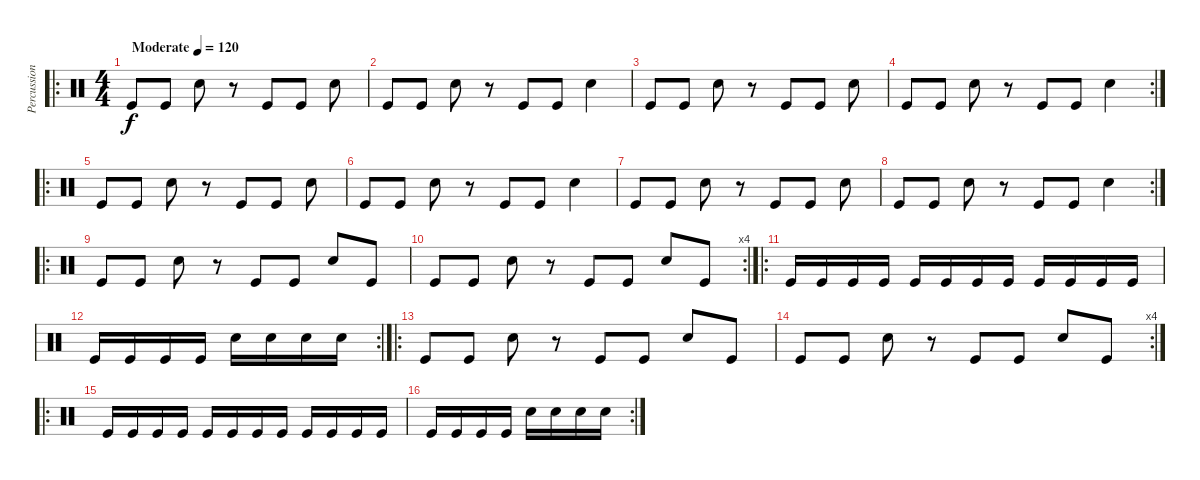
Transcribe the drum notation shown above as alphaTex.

\track ("Percussion" "Percussion") {instrument percussion}
\staff {score}
\articulation defaults
\ro
\ts (4 4)
\tempo (120 "Moderate")
\clef neutral
\ks c "Kick (hit)".8{dy f} "Kick (hit)".8 "Snare (hit) 2".8
r.8 "Kick (hit)".8 "Kick (hit)".8 "Snare (hit) 2".8 |
"Kick (hit)".8 "Kick (hit)".8 "Snare (hit) 2".8 r.8 "Kick (hit)".8 "Kick (hit)".8 "Snare (hit) 2".4 |
"Kick (hit)".8 "Kick (hit)".8 "Snare (hit) 2".8 r.8 "Kick (hit)".8 "Kick (hit)".8 "Snare (hit) 2".8 |
\rc 2 "Kick (hit)".8 "Kick (hit)".8 "Snare (hit) 2".8
r.8 "Kick (hit)".8 "Kick (hit)".8 "Snare (hit) 2".4 |
\ro "Kick (hit)".8 "Kick (hit)".8 "Snare (hit) 2".8
r.8 "Kick (hit)".8 "Kick (hit)".8 "Snare (hit) 2".8 |
"Kick (hit)".8 "Kick (hit)".8 "Snare (hit) 2".8 r.8 "Kick (hit)".8 "Kick (hit)".8 "Snare (hit) 2".4 |
"Kick (hit)".8 "Kick (hit)".8 "Snare (hit) 2".8 r.8 "Kick (hit)".8 "Kick (hit)".8 "Snare (hit) 2".8 |
\rc 2 "Kick (hit)".8 "Kick (hit)".8 "Snare (hit) 2".8
r.8 "Kick (hit)".8 "Kick (hit)".8 "Snare (hit) 2".4 |
\ro "Kick (hit)".8 "Kick (hit)".8 "Snare (hit) 2".8
r.8 "Kick (hit)".8 "Kick (hit)".8 "Snare (hit) 2".8 "Kick (hit)".8 |
\rc 4 "Kick (hit)".8 "Kick (hit)".8 "Snare (hit) 2".8
r.8 "Kick (hit)".8 "Kick (hit)".8 "Snare (hit) 2".8 "Kick (hit)".8 |
\ro "Kick (hit)".16 "Kick (hit)".16 "Kick (hit)".16 "Kick (hit)".16 "Kick (hit)".16 "Kick (hit)".16 "Kick (hit)".16 "Kick (hit)".16 "Kick (hit)".16 "Kick (hit)".16 "Kick (hit)".16 "Kick (hit)".16
|
\rc 2 "Kick (hit)".16 "Kick (hit)".16 "Kick (hit)".16 "Kick (hit)".16 "Snare (hit) 2".16 "Snare (hit) 2".16 "Snare (hit) 2".16 "Snare (hit) 2".16
|
\ro "Kick (hit)".8 "Kick (hit)".8 "Snare (hit) 2".8
r.8 "Kick (hit)".8 "Kick (hit)".8 "Snare (hit) 2".8 "Kick (hit)".8 |
\rc 4 "Kick (hit)".8 "Kick (hit)".8 "Snare (hit) 2".8
r.8 "Kick (hit)".8 "Kick (hit)".8 "Snare (hit) 2".8 "Kick (hit)".8 |
\ro "Kick (hit)".16 "Kick (hit)".16 "Kick (hit)".16 "Kick (hit)".16 "Kick (hit)".16 "Kick (hit)".16 "Kick (hit)".16 "Kick (hit)".16 "Kick (hit)".16 "Kick (hit)".16 "Kick (hit)".16 "Kick (hit)".16
|
\rc 2 "Kick (hit)".16 "Kick (hit)".16 "Kick (hit)".16 "Kick (hit)".16 "Snare (hit) 2".16 "Snare (hit) 2".16 "Snare (hit) 2".16 "Snare (hit) 2".16
